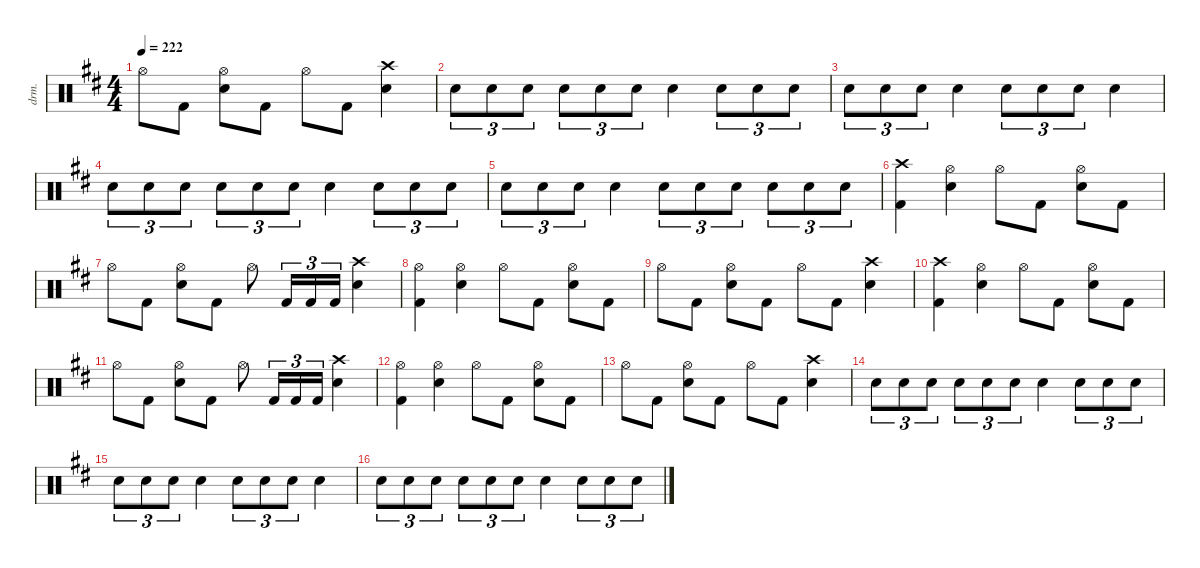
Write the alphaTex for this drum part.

\defaultSystemsLayout 4
\hideDynamics
\bracketExtendMode nobrackets
\otherSystemsTrackNameOrientation horizontal
\track ("Lars Ulrich" "drm.") {defaultSystemsLayout 4 instrument percussion}
\staff {score}
\articulation defaults
\ts (4 4)
\tempo 222
\clef neutral
\ks bminor "Hi-Hat (open)"{acc forcenatural}.8{dy f beam Down} "Kick (hit) 2"{acc forcenatural}.8{beam Down}
("Hi-Hat (open)"{acc forcenatural} "Snare (hit) 2"{acc forcenatural}).8{beam Down} "Kick (hit) 2"{acc forcenatural}.8{beam Down} "Hi-Hat (open)"{acc forcenatural}.8{beam Down} "Kick (hit) 2"{acc forcenatural}.8{beam Down} ("Crash high (hit)"{acc forcenatural} "Snare (hit) 2"{acc forcenatural}).4{beam Down} |
"Snare (hit) 2"{acc forcenatural}.8{tu (3 2) beam Down} "Snare (hit) 2"{acc forcenatural}.8{tu (3 2) beam Down} "Snare (hit) 2"{acc forcenatural}.8{tu (3 2) beam Down} "Snare (hit) 2"{acc forcenatural}.8{tu (3 2) beam Down} "Snare (hit) 2"{acc forcenatural}.8{tu (3 2) beam Down} "Snare (hit) 2"{acc forcenatural}.8{tu (3 2) beam Down} "Snare (hit) 2"{acc forcenatural}.4{beam Down} "Snare (hit) 2"{acc forcenatural}.8{tu (3 2) beam Down} "Snare (hit) 2"{acc forcenatural}.8{tu (3 2) beam Down} "Snare (hit) 2"{acc forcenatural}.8{tu (3 2) beam Down} |
"Snare (hit) 2"{acc forcenatural}.8{tu (3 2) beam Down} "Snare (hit) 2"{acc forcenatural}.8{tu (3 2) beam Down} "Snare (hit) 2"{acc forcenatural}.8{tu (3 2) beam Down} "Snare (hit) 2"{acc forcenatural}.4{beam Down} "Snare (hit) 2"{acc forcenatural}.8{tu (3 2) beam Down} "Snare (hit) 2"{acc forcenatural}.8{tu (3 2) beam Down} "Snare (hit) 2"{acc forcenatural}.8{tu (3 2) beam Down} "Snare (hit) 2"{acc forcenatural}.4{beam Down} |
"Snare (hit) 2"{acc forcenatural}.8{tu (3 2) beam Down} "Snare (hit) 2"{acc forcenatural}.8{tu (3 2) beam Down} "Snare (hit) 2"{acc forcenatural}.8{tu (3 2) beam Down} "Snare (hit) 2"{acc forcenatural}.8{tu (3 2) beam Down} "Snare (hit) 2"{acc forcenatural}.8{tu (3 2) beam Down} "Snare (hit) 2"{acc forcenatural}.8{tu (3 2) beam Down} "Snare (hit) 2"{acc forcenatural}.4{beam Down} "Snare (hit) 2"{acc forcenatural}.8{tu (3 2) beam Down} "Snare (hit) 2"{acc forcenatural}.8{tu (3 2) beam Down} "Snare (hit) 2"{acc forcenatural}.8{tu (3 2) beam Down} |
"Snare (hit) 2"{acc forcenatural}.8{tu (3 2) beam Down} "Snare (hit) 2"{acc forcenatural}.8{tu (3 2) beam Down} "Snare (hit) 2"{acc forcenatural}.8{tu (3 2) beam Down} "Snare (hit) 2"{acc forcenatural}.4{beam Down} "Snare (hit) 2"{acc forcenatural}.8{tu (3 2) beam Down} "Snare (hit) 2"{acc forcenatural}.8{tu (3 2) beam Down} "Snare (hit) 2"{acc forcenatural}.8{tu (3 2) beam Down} "Snare (hit) 2"{acc forcenatural}.8{tu (3 2) beam Down} "Snare (hit) 2"{acc forcenatural}.8{tu (3 2) beam Down} "Snare (hit) 2"{acc forcenatural}.8{tu (3 2) beam Down} |
("Crash high (hit)"{acc forcenatural} "Kick (hit) 2"{acc forcenatural}).4{beam Down} ("Hi-Hat (open)"{acc forcenatural} "Snare (hit) 2"{acc forcenatural}).4{beam Down} "Hi-Hat (open)"{acc forcenatural}.8{beam Down} "Kick (hit) 2"{acc forcenatural}.8{beam Down} ("Hi-Hat (open)"{acc forcenatural} "Snare (hit) 2"{acc forcenatural}).8{beam Down} "Kick (hit) 2"{acc forcenatural}.8{beam Down} |
"Hi-Hat (open)"{acc forcenatural}.8{beam Down} "Kick (hit) 2"{acc forcenatural}.8{beam Down} ("Hi-Hat (open)"{acc forcenatural} "Snare (hit) 2"{acc forcenatural}).8{beam Down} "Kick (hit) 2"{acc forcenatural}.8{beam Down} "Hi-Hat (open)"{acc forcenatural}.8{beam Down} "Kick (hit) 2"{acc forcenatural}.16{tu (3 2) beam Up} "Kick (hit) 2"{acc forcenatural}.16{tu (3 2) beam Up} "Kick (hit) 2"{acc forcenatural}.16{tu (3 2) beam Up} ("Crash high (hit)"{acc forcenatural} "Snare (hit) 2"{acc forcenatural}).4{beam Down} |
("Hi-Hat (open)"{acc forcenatural} "Kick (hit) 2"{acc forcenatural}).4{beam Down} ("Hi-Hat (open)"{acc forcenatural} "Snare (hit) 2"{acc forcenatural}).4{beam Down} "Hi-Hat (open)"{acc forcenatural}.8{beam Down} "Kick (hit) 2"{acc forcenatural}.8{beam Down} ("Hi-Hat (open)"{acc forcenatural} "Snare (hit) 2"{acc forcenatural}).8{beam Down} "Kick (hit) 2"{acc forcenatural}.8{beam Down} |
"Hi-Hat (open)"{acc forcenatural}.8{beam Down} "Kick (hit) 2"{acc forcenatural}.8{beam Down} ("Hi-Hat (open)"{acc forcenatural} "Snare (hit) 2"{acc forcenatural}).8{beam Down} "Kick (hit) 2"{acc forcenatural}.8{beam Down} "Hi-Hat (open)"{acc forcenatural}.8{beam Down} "Kick (hit) 2"{acc forcenatural}.8{beam Down} ("Crash high (hit)"{acc forcenatural} "Snare (hit) 2"{acc forcenatural}).4{beam Down} |
("Crash high (hit)"{acc forcenatural} "Kick (hit) 2"{acc forcenatural}).4{beam Down} ("Hi-Hat (open)"{acc forcenatural} "Snare (hit) 2"{acc forcenatural}).4{beam Down} "Hi-Hat (open)"{acc forcenatural}.8{beam Down} "Kick (hit) 2"{acc forcenatural}.8{beam Down} ("Hi-Hat (open)"{acc forcenatural} "Snare (hit) 2"{acc forcenatural}).8{beam Down} "Kick (hit) 2"{acc forcenatural}.8{beam Down} |
"Hi-Hat (open)"{acc forcenatural}.8{beam Down} "Kick (hit) 2"{acc forcenatural}.8{beam Down} ("Hi-Hat (open)"{acc forcenatural} "Snare (hit) 2"{acc forcenatural}).8{beam Down} "Kick (hit) 2"{acc forcenatural}.8{beam Down} "Hi-Hat (open)"{acc forcenatural}.8{beam Down} "Kick (hit) 2"{acc forcenatural}.16{tu (3 2) beam Up} "Kick (hit) 2"{acc forcenatural}.16{tu (3 2) beam Up} "Kick (hit) 2"{acc forcenatural}.16{tu (3 2) beam Up} ("Crash high (hit)"{acc forcenatural} "Snare (hit) 2"{acc forcenatural}).4{beam Down} |
("Hi-Hat (open)"{acc forcenatural} "Kick (hit) 2"{acc forcenatural}).4{beam Down} ("Hi-Hat (open)"{acc forcenatural} "Snare (hit) 2"{acc forcenatural}).4{beam Down} "Hi-Hat (open)"{acc forcenatural}.8{beam Down} "Kick (hit) 2"{acc forcenatural}.8{beam Down} ("Hi-Hat (open)"{acc forcenatural} "Snare (hit) 2"{acc forcenatural}).8{beam Down} "Kick (hit) 2"{acc forcenatural}.8{beam Down} |
"Hi-Hat (open)"{acc forcenatural}.8{beam Down} "Kick (hit) 2"{acc forcenatural}.8{beam Down} ("Hi-Hat (open)"{acc forcenatural} "Snare (hit) 2"{acc forcenatural}).8{beam Down} "Kick (hit) 2"{acc forcenatural}.8{beam Down} "Hi-Hat (open)"{acc forcenatural}.8{beam Down} "Kick (hit) 2"{acc forcenatural}.8{beam Down} ("Crash high (hit)"{acc forcenatural} "Snare (hit) 2"{acc forcenatural}).4{beam Down} |
"Snare (hit) 2"{acc forcenatural}.8{tu (3 2) beam Down} "Snare (hit) 2"{acc forcenatural}.8{tu (3 2) beam Down} "Snare (hit) 2"{acc forcenatural}.8{tu (3 2) beam Down} "Snare (hit) 2"{acc forcenatural}.8{tu (3 2) beam Down} "Snare (hit) 2"{acc forcenatural}.8{tu (3 2) beam Down} "Snare (hit) 2"{acc forcenatural}.8{tu (3 2) beam Down} "Snare (hit) 2"{acc forcenatural}.4{beam Down} "Snare (hit) 2"{acc forcenatural}.8{tu (3 2) beam Down} "Snare (hit) 2"{acc forcenatural}.8{tu (3 2) beam Down} "Snare (hit) 2"{acc forcenatural}.8{tu (3 2) beam Down} |
"Snare (hit) 2"{acc forcenatural}.8{tu (3 2) beam Down} "Snare (hit) 2"{acc forcenatural}.8{tu (3 2) beam Down} "Snare (hit) 2"{acc forcenatural}.8{tu (3 2) beam Down} "Snare (hit) 2"{acc forcenatural}.4{beam Down} "Snare (hit) 2"{acc forcenatural}.8{tu (3 2) beam Down} "Snare (hit) 2"{acc forcenatural}.8{tu (3 2) beam Down} "Snare (hit) 2"{acc forcenatural}.8{tu (3 2) beam Down} "Snare (hit) 2"{acc forcenatural}.4{beam Down} |
"Snare (hit) 2"{acc forcenatural}.8{tu (3 2) beam Down} "Snare (hit) 2"{acc forcenatural}.8{tu (3 2) beam Down} "Snare (hit) 2"{acc forcenatural}.8{tu (3 2) beam Down} "Snare (hit) 2"{acc forcenatural}.8{tu (3 2) beam Down} "Snare (hit) 2"{acc forcenatural}.8{tu (3 2) beam Down} "Snare (hit) 2"{acc forcenatural}.8{tu (3 2) beam Down} "Snare (hit) 2"{acc forcenatural}.4{beam Down} "Snare (hit) 2"{acc forcenatural}.8{tu (3 2) beam Down} "Snare (hit) 2"{acc forcenatural}.8{tu (3 2) beam Down} "Snare (hit) 2"{acc forcenatural}.8{tu (3 2) beam Down}
